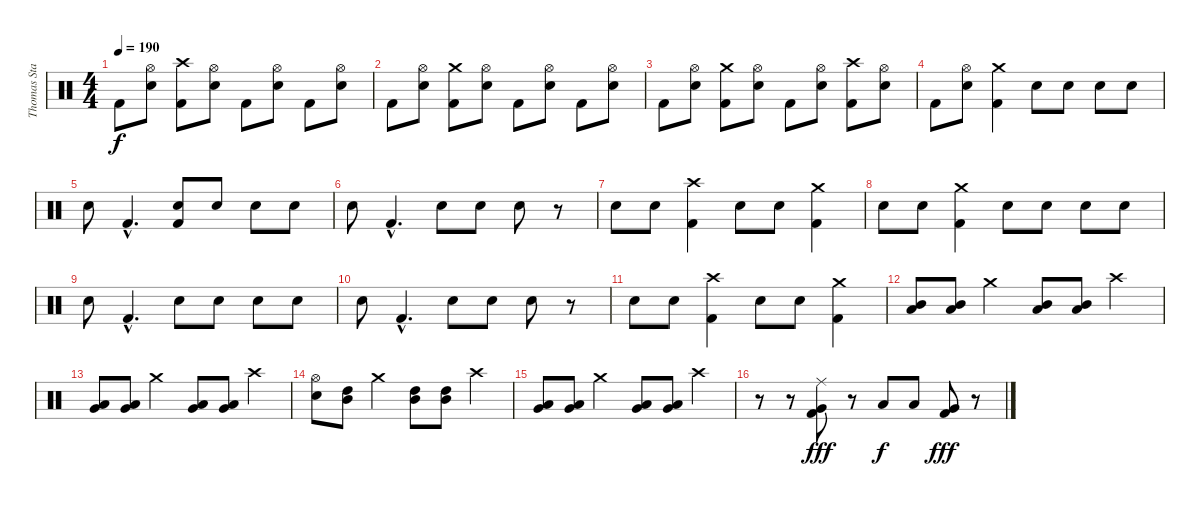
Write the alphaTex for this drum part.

\track ("Thomas Stauch" "Thomas Sta") {instrument percussion}
\staff {score}
\articulation defaults
\ts (4 4)
\tempo 190
\clef neutral
\ks c "Kick (hit) 2".8{dy f}
("Hi-Hat (open)" "Electric Snare (hit)").8 ("Crash high (hit)" "Kick (hit) 2").8 ("Hi-Hat (open)" "Electric Snare (hit)").8 "Kick (hit) 2".8 ("Hi-Hat (open)" "Electric Snare (hit)").8 "Kick (hit) 2".8 ("Hi-Hat (open)" "Electric Snare (hit)").8 |
"Kick (hit) 2".8 ("Hi-Hat (open)" "Electric Snare (hit)").8 ("Crash medium (hit)" "Kick (hit) 2").8 ("Hi-Hat (open)" "Electric Snare (hit)").8 "Kick (hit) 2".8 ("Hi-Hat (open)" "Electric Snare (hit)").8 "Kick (hit) 2".8 ("Hi-Hat (open)" "Electric Snare (hit)").8 |
"Kick (hit) 2".8 ("Hi-Hat (open)" "Electric Snare (hit)").8 ("Crash medium (hit)" "Kick (hit) 2").8 ("Hi-Hat (open)" "Electric Snare (hit)").8 "Kick (hit) 2".8 ("Hi-Hat (open)" "Electric Snare (hit)").8 ("Crash high (hit)" "Kick (hit) 2").8 ("Hi-Hat (open)" "Electric Snare (hit)").8 |
"Kick (hit) 2".8 ("Hi-Hat (open)" "Electric Snare (hit)").8 ("Crash medium (hit)" "Kick (hit) 2").4 "Electric Snare (hit)".8 "Electric Snare (hit)".8 "Electric Snare (hit)".8 "Electric Snare (hit)".8 |
"Electric Snare (hit)".8 "Kick (hit) 2"{hac}.4{d} ("Electric Snare (hit)" "Kick (hit) 2").8 "Electric Snare (hit)".8 "Electric Snare (hit)".8 "Electric Snare (hit)".8 |
"Electric Snare (hit)".8 "Kick (hit) 2"{hac}.4{d} "Electric Snare (hit)".8 "Electric Snare (hit)".8 "Electric Snare (hit)".8 r.8 |
"Electric Snare (hit)".8 "Electric Snare (hit)".8 ("Crash high (hit)" "Kick (hit) 2").4 "Electric Snare (hit)".8 "Electric Snare (hit)".8 ("Crash medium (hit)" "Kick (hit) 2").4 |
"Electric Snare (hit)".8 "Electric Snare (hit)".8 ("Crash medium (hit)" "Kick (hit) 2").4 "Electric Snare (hit)".8 "Electric Snare (hit)".8 "Electric Snare (hit)".8 "Electric Snare (hit)".8 |
"Electric Snare (hit)".8 "Kick (hit) 2"{hac}.4{d} "Electric Snare (hit)".8 "Electric Snare (hit)".8 "Electric Snare (hit)".8 "Electric Snare (hit)".8 |
"Electric Snare (hit)".8 "Kick (hit) 2"{hac}.4{d} "Electric Snare (hit)".8 "Electric Snare (hit)".8 "Electric Snare (hit)".8 r.8 |
"Electric Snare (hit)".8 "Electric Snare (hit)".8 ("Crash high (hit)" "Kick (hit) 2").4 "Electric Snare (hit)".8 "Electric Snare (hit)".8 ("Crash medium (hit)" "Kick (hit) 2").4 |
("Mid Tom (hit)" "Low Tom (hit)").8 ("Mid Tom (hit)" "Low Tom (hit)").8 "Crash medium (hit)".4 ("Mid Tom (hit)" "Low Tom (hit)").8 ("Mid Tom (hit)" "Low Tom (hit)").8 "Crash high (hit)".4 |
("Low Tom (hit)" "Very Low Tom (hit)").8 ("Low Tom (hit)" "Very Low Tom (hit)").8 "Crash medium (hit)".4 ("Low Tom (hit)" "Very Low Tom (hit)").8 ("Low Tom (hit)" "Very Low Tom (hit)").8 "Crash high (hit)".4 |
("Hi-Hat (open)" "Electric Snare (hit)").8 ("High Tom (hit)" "Mid Tom (hit)").8 "Crash medium (hit)".4 ("High Tom (hit)" "Mid Tom (hit)").8 ("High Tom (hit)" "Mid Tom (hit)").8 "Crash high (hit)".4 |
("Low Tom (hit)" "Very Low Tom (hit)").8 ("Low Tom (hit)" "Very Low Tom (hit)").8 "Crash medium (hit)".4 ("Low Tom (hit)" "Very Low Tom (hit)").8 ("Low Tom (hit)" "Very Low Tom (hit)").8 "Crash high (hit)".4 |
r.8 r.8 ("Ride (middle)" "Very Low Tom (hit)" "Kick (hit) 2").8{dy fff} r.8 "Low Tom (hit)".8{dy f} "Low Tom (hit)".8 ("Very Low Tom (hit)" "Kick (hit) 2").8{dy fff} r.8
